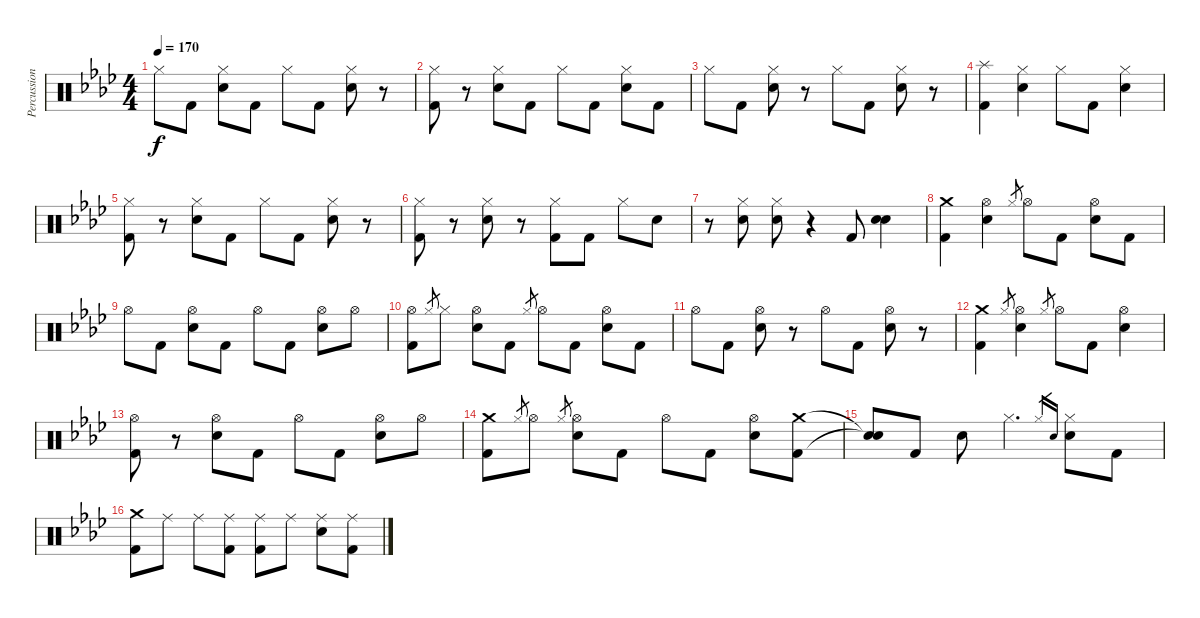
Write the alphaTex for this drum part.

\track ("Percussion" "Percussion") {instrument percussion}
\staff {score}
\articulation defaults
\ts (4 4)
\tempo 170
\clef neutral
\ks ab "Hi-Hat (closed)".8{dy f} "Kick (hit) 2".8
("Hi-Hat (closed)" "Electric Snare (hit)").8 "Kick (hit) 2".8 "Hi-Hat (closed)".8 "Kick (hit) 2".8 ("Hi-Hat (closed)" "Electric Snare (hit)").8 r.8 |
("Hi-Hat (closed)" "Kick (hit) 2").8 r.8 ("Hi-Hat (closed)" "Electric Snare (hit)").8 "Kick (hit) 2".8 "Hi-Hat (closed)".8 "Kick (hit) 2".8 ("Hi-Hat (closed)" "Electric Snare (hit)").8 "Kick (hit) 2".8 |
"Hi-Hat (closed)".8 "Kick (hit) 2".8 ("Hi-Hat (closed)" "Electric Snare (hit)").8 r.8 "Hi-Hat (closed)".8 "Kick (hit) 2".8 ("Hi-Hat (closed)" "Electric Snare (hit)").8 r.8 |
("Splash (hit)" "Kick (hit) 2").4 ("Hi-Hat (closed)" "Electric Snare (hit)").4 "Hi-Hat (closed)".8 "Kick (hit) 2".8 ("Hi-Hat (closed)" "Electric Snare (hit)").4 |
("Hi-Hat (closed)" "Kick (hit) 2").8 r.8 ("Hi-Hat (closed)" "Electric Snare (hit)").8 "Kick (hit) 2".8 "Hi-Hat (closed)".8 "Kick (hit) 2".8 ("Hi-Hat (closed)" "Electric Snare (hit)").8 r.8 |
("Hi-Hat (closed)" "Kick (hit) 2").8 r.8 ("Hi-Hat (closed)" "Electric Snare (hit)").8 r.8 ("Hi-Hat (closed)" "Kick (hit) 2").8 "Kick (hit) 2".8 "Hi-Hat (closed)".8 "Electric Snare (hit)".8 |
r.8 ("Hi-Hat (closed)" "Electric Snare (hit)").8 ("Hi-Hat (closed)" "Electric Snare (hit)").8 r.4 "Kick (hit) 2".8 ("Electric Snare (hit)" "Electric Snare (hit)").4 |
("Crash medium (hit)" "Kick (hit) 2").4 ("Hi-Hat (open)" "Electric Snare (hit)").4 "Hi-Hat (closed)".8{gr} "Hi-Hat (open)".8 "Kick (hit) 2".8 ("Hi-Hat (open)" "Electric Snare (hit)").8 "Kick (hit) 2".8 |
"Hi-Hat (open)".8 "Kick (hit) 2".8 ("Hi-Hat (open)" "Electric Snare (hit)").8 "Kick (hit) 2".8 "Hi-Hat (open)".8 "Kick (hit) 2".8 ("Hi-Hat (open)" "Electric Snare (hit)").8 "Hi-Hat (open)".8 |
("Hi-Hat (open)" "Kick (hit) 2").8 "Hi-Hat (closed)".8{gr} "Hi-Hat (closed)".8 ("Hi-Hat (open)" "Electric Snare (hit)").8 "Kick (hit) 2".8 "Hi-Hat (closed)".8{gr} "Hi-Hat (open)".8 "Kick (hit) 2".8 ("Hi-Hat (open)" "Electric Snare (hit)").8 "Kick (hit) 2".8 |
"Hi-Hat (open)".8 "Kick (hit) 2".8 ("Hi-Hat (open)" "Electric Snare (hit)").8 r.8 "Hi-Hat (open)".8 "Kick (hit) 2".8 ("Hi-Hat (open)" "Electric Snare (hit)").8 r.8 |
("Crash medium (hit)" "Kick (hit) 2").4 "Hi-Hat (closed)".8{gr} ("Hi-Hat (open)" "Electric Snare (hit)").4 "Hi-Hat (closed)".8{gr} "Hi-Hat (open)".8 "Kick (hit) 2".8 ("Hi-Hat (open)" "Electric Snare (hit)").4 |
("Hi-Hat (open)" "Kick (hit) 2").8 r.8 ("Hi-Hat (open)" "Electric Snare (hit)").8 "Kick (hit) 2".8 "Hi-Hat (open)".8 "Kick (hit) 2".8 ("Hi-Hat (open)" "Electric Snare (hit)").8 "Hi-Hat (open)".8 |
("Crash medium (hit)" "Kick (hit) 2").8 "Hi-Hat (closed)".8{gr} "Hi-Hat (open)".8 "Hi-Hat (closed)".8{gr} ("Hi-Hat (open)" "Electric Snare (hit)").8 "Kick (hit) 2".8 "Hi-Hat (open)".8 "Kick (hit) 2".8 ("Hi-Hat (open)" "Electric Snare (hit)").8 ("Crash medium (hit)" "Kick (hit) 2").8 |
("Snare (hit)"{t} "Snare (hit)"{t}).8 "Kick (hit) 2".8 "Electric Snare (hit)".8 "Hi-Hat (closed)".4{d} "Hi-Hat (closed)".16{gr} "Electric Snare (hit)".16{gr} ("Hi-Hat (closed)" "Electric Snare (hit)").8 "Kick (hit) 2".8 |
("Crash medium (hit)" "Kick (hit) 2").8 "Ride (middle)".8 "Ride (middle)".8 ("Ride (middle)" "Kick (hit) 2").8 ("Ride (middle)" "Kick (hit) 2").8 "Ride (middle)".8 ("Ride (middle)" "Electric Snare (hit)").8 ("Ride (middle)" "Kick (hit) 2").8
